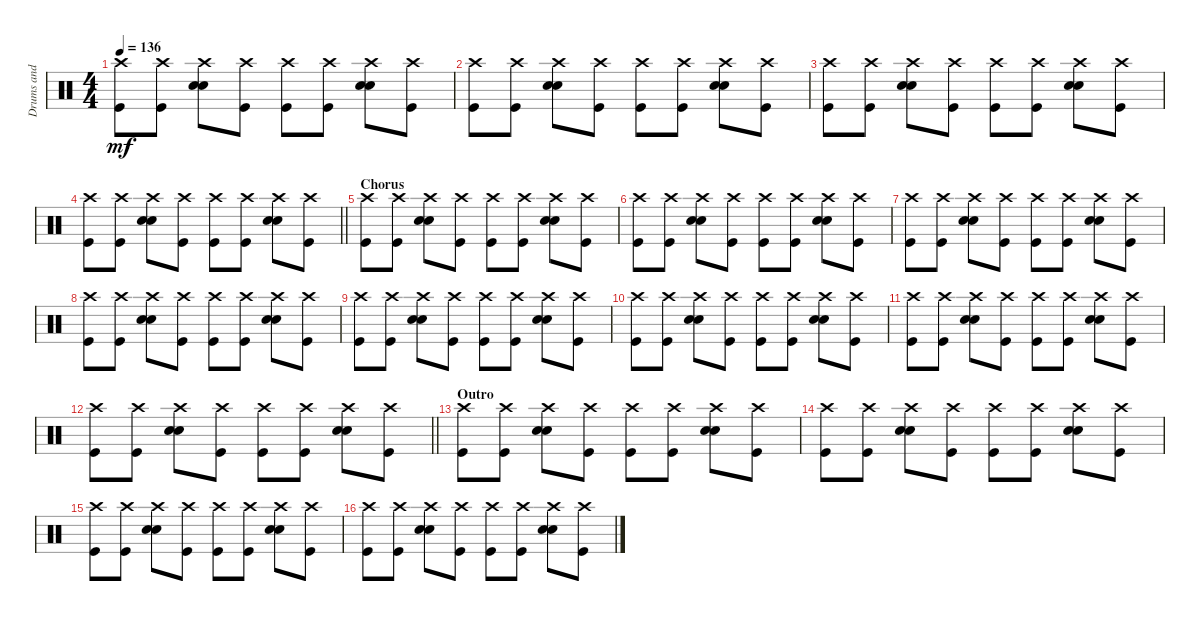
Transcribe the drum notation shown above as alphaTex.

\track ("Drums and Percussions" "Drums and ") {instrument percussion}
\staff {score}
\articulation defaults
\ts (4 4)
\tempo 136
\clef neutral
\ks c
("Crash high (hit)" "Kick (hit)").8{dy mf} ("Crash high (hit)" "Kick (hit)").8 ("Crash high (hit)" "Electric Snare (hit)" "Electric Snare (hit)").8 ("Crash high (hit)" "Kick (hit)").8 ("Crash high (hit)" "Kick (hit)").8 ("Crash high (hit)" "Kick (hit)").8 ("Crash high (hit)" "Electric Snare (hit)" "Electric Snare (hit)").8 ("Crash high (hit)" "Kick (hit)").8 |
("Crash high (hit)" "Kick (hit)").8 ("Crash high (hit)" "Kick (hit)").8 ("Crash high (hit)" "Electric Snare (hit)" "Electric Snare (hit)").8 ("Crash high (hit)" "Kick (hit)").8 ("Crash high (hit)" "Kick (hit)").8 ("Crash high (hit)" "Kick (hit)").8 ("Crash high (hit)" "Electric Snare (hit)" "Electric Snare (hit)").8 ("Crash high (hit)" "Kick (hit)").8 |
("Crash high (hit)" "Kick (hit)").8 ("Crash high (hit)" "Kick (hit)").8 ("Crash high (hit)" "Electric Snare (hit)" "Electric Snare (hit)").8 ("Crash high (hit)" "Kick (hit)").8 ("Crash high (hit)" "Kick (hit)").8 ("Crash high (hit)" "Kick (hit)").8 ("Crash high (hit)" "Electric Snare (hit)" "Electric Snare (hit)").8 ("Crash high (hit)" "Kick (hit)").8 |
\barLineRight lightlight
("Crash high (hit)" "Kick (hit)").8 ("Crash high (hit)" "Kick (hit)").8 ("Crash high (hit)" "Electric Snare (hit)" "Electric Snare (hit)").8 ("Crash high (hit)" "Kick (hit)").8 ("Crash high (hit)" "Kick (hit)").8 ("Crash high (hit)" "Kick (hit)").8 ("Crash high (hit)" "Electric Snare (hit)" "Electric Snare (hit)").8 ("Crash high (hit)" "Kick (hit)").8 |
\section ("" "Chorus")
("Crash high (hit)" "Kick (hit)").8 ("Crash high (hit)" "Kick (hit)").8 ("Crash high (hit)" "Electric Snare (hit)" "Electric Snare (hit)").8 ("Crash high (hit)" "Kick (hit)").8 ("Crash high (hit)" "Kick (hit)").8 ("Crash high (hit)" "Kick (hit)").8 ("Crash high (hit)" "Electric Snare (hit)" "Electric Snare (hit)").8 ("Crash high (hit)" "Kick (hit)").8 |
("Crash high (hit)" "Kick (hit)").8 ("Crash high (hit)" "Kick (hit)").8 ("Crash high (hit)" "Electric Snare (hit)" "Electric Snare (hit)").8 ("Crash high (hit)" "Kick (hit)").8 ("Crash high (hit)" "Kick (hit)").8 ("Crash high (hit)" "Kick (hit)").8 ("Crash high (hit)" "Electric Snare (hit)" "Electric Snare (hit)").8 ("Crash high (hit)" "Kick (hit)").8 |
("Crash high (hit)" "Kick (hit)").8 ("Crash high (hit)" "Kick (hit)").8 ("Crash high (hit)" "Electric Snare (hit)" "Electric Snare (hit)").8 ("Crash high (hit)" "Kick (hit)").8 ("Crash high (hit)" "Kick (hit)").8 ("Crash high (hit)" "Kick (hit)").8 ("Crash high (hit)" "Electric Snare (hit)" "Electric Snare (hit)").8 ("Crash high (hit)" "Kick (hit)").8 |
("Crash high (hit)" "Kick (hit)").8 ("Crash high (hit)" "Kick (hit)").8 ("Crash high (hit)" "Electric Snare (hit)" "Electric Snare (hit)").8 ("Crash high (hit)" "Kick (hit)").8 ("Crash high (hit)" "Kick (hit)").8 ("Crash high (hit)" "Kick (hit)").8 ("Crash high (hit)" "Electric Snare (hit)" "Electric Snare (hit)").8 ("Crash high (hit)" "Kick (hit)").8 |
("Crash high (hit)" "Kick (hit)").8 ("Crash high (hit)" "Kick (hit)").8 ("Crash high (hit)" "Electric Snare (hit)" "Electric Snare (hit)").8 ("Crash high (hit)" "Kick (hit)").8 ("Crash high (hit)" "Kick (hit)").8 ("Crash high (hit)" "Kick (hit)").8 ("Crash high (hit)" "Electric Snare (hit)" "Electric Snare (hit)").8 ("Crash high (hit)" "Kick (hit)").8 |
("Crash high (hit)" "Kick (hit)").8 ("Crash high (hit)" "Kick (hit)").8 ("Crash high (hit)" "Electric Snare (hit)" "Electric Snare (hit)").8 ("Crash high (hit)" "Kick (hit)").8 ("Crash high (hit)" "Kick (hit)").8 ("Crash high (hit)" "Kick (hit)").8 ("Crash high (hit)" "Electric Snare (hit)" "Electric Snare (hit)").8 ("Crash high (hit)" "Kick (hit)").8 |
("Crash high (hit)" "Kick (hit)").8 ("Crash high (hit)" "Kick (hit)").8 ("Crash high (hit)" "Electric Snare (hit)" "Electric Snare (hit)").8 ("Crash high (hit)" "Kick (hit)").8 ("Crash high (hit)" "Kick (hit)").8 ("Crash high (hit)" "Kick (hit)").8 ("Crash high (hit)" "Electric Snare (hit)" "Electric Snare (hit)").8 ("Crash high (hit)" "Kick (hit)").8 |
\barLineRight lightlight
("Crash high (hit)" "Kick (hit)").8 ("Crash high (hit)" "Kick (hit)").8 ("Crash high (hit)" "Electric Snare (hit)" "Electric Snare (hit)").8 ("Crash high (hit)" "Kick (hit)").8 ("Crash high (hit)" "Kick (hit)").8 ("Crash high (hit)" "Kick (hit)").8 ("Crash high (hit)" "Electric Snare (hit)" "Electric Snare (hit)").8 ("Crash high (hit)" "Kick (hit)").8 |
\section ("" "Outro")
("Crash high (hit)" "Kick (hit)").8 ("Crash high (hit)" "Kick (hit)").8 ("Crash high (hit)" "Electric Snare (hit)" "Electric Snare (hit)").8 ("Crash high (hit)" "Kick (hit)").8 ("Crash high (hit)" "Kick (hit)").8 ("Crash high (hit)" "Kick (hit)").8 ("Crash high (hit)" "Electric Snare (hit)" "Electric Snare (hit)").8 ("Crash high (hit)" "Kick (hit)").8 |
("Crash high (hit)" "Kick (hit)").8 ("Crash high (hit)" "Kick (hit)").8 ("Crash high (hit)" "Electric Snare (hit)" "Electric Snare (hit)").8 ("Crash high (hit)" "Kick (hit)").8 ("Crash high (hit)" "Kick (hit)").8 ("Crash high (hit)" "Kick (hit)").8 ("Crash high (hit)" "Electric Snare (hit)" "Electric Snare (hit)").8 ("Crash high (hit)" "Kick (hit)").8 |
("Crash high (hit)" "Kick (hit)").8 ("Crash high (hit)" "Kick (hit)").8 ("Crash high (hit)" "Electric Snare (hit)" "Electric Snare (hit)").8 ("Crash high (hit)" "Kick (hit)").8 ("Crash high (hit)" "Kick (hit)").8 ("Crash high (hit)" "Kick (hit)").8 ("Crash high (hit)" "Electric Snare (hit)" "Electric Snare (hit)").8 ("Crash high (hit)" "Kick (hit)").8 |
("Crash high (hit)" "Kick (hit)").8 ("Crash high (hit)" "Kick (hit)").8 ("Crash high (hit)" "Electric Snare (hit)" "Electric Snare (hit)").8 ("Crash high (hit)" "Kick (hit)").8 ("Crash high (hit)" "Kick (hit)").8 ("Crash high (hit)" "Kick (hit)").8 ("Crash high (hit)" "Electric Snare (hit)" "Electric Snare (hit)").8 ("Crash high (hit)" "Kick (hit)").8
